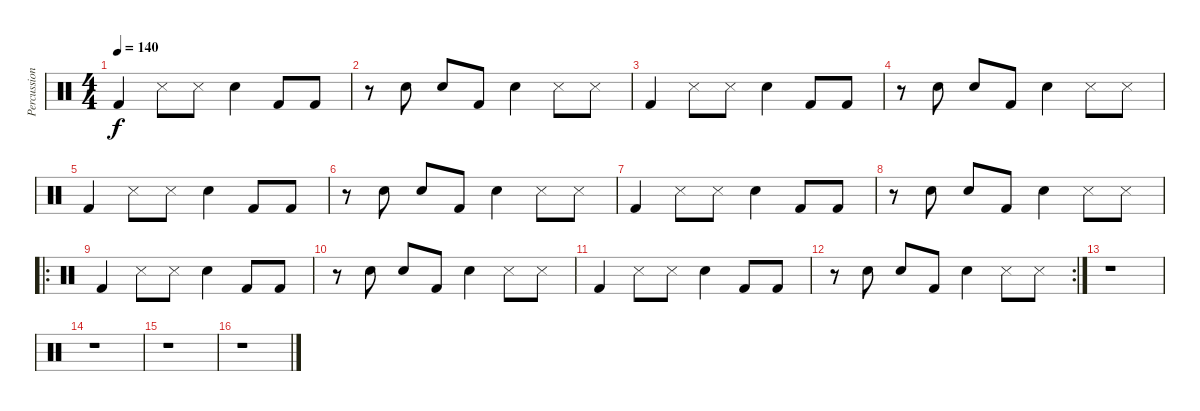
\track ("Percussions" "Percussion") {instrument percussion}
\staff {score}
\articulation defaults
\ts (4 4)
\tempo 140
\clef neutral
\ks c "Kick (hit) 2".4{dy f} "Snare (side stick) 3".8 "Snare (side stick) 3".8 "Electric Snare (hit)".4 "Kick (hit) 2".8 "Kick (hit) 2".8
|
r.8 "Electric Snare (hit)".8 "Snare (hit) 2".8 "Kick (hit) 2".8 "Electric Snare (hit)".4 "Snare (side stick) 3".8 "Snare (side stick) 3".8 |
"Kick (hit) 2".4 "Snare (side stick) 3".8 "Snare (side stick) 3".8 "Electric Snare (hit)".4 "Kick (hit) 2".8 "Kick (hit) 2".8 |
r.8 "Electric Snare (hit)".8 "Snare (hit) 2".8 "Kick (hit) 2".8 "Electric Snare (hit)".4 "Snare (side stick) 3".8 "Snare (side stick) 3".8 |
"Kick (hit) 2".4 "Snare (side stick) 3".8 "Snare (side stick) 3".8 "Electric Snare (hit)".4 "Kick (hit) 2".8 "Kick (hit) 2".8 |
r.8 "Electric Snare (hit)".8 "Snare (hit) 2".8 "Kick (hit) 2".8 "Electric Snare (hit)".4 "Snare (side stick) 3".8 "Snare (side stick) 3".8 |
"Kick (hit) 2".4 "Snare (side stick) 3".8 "Snare (side stick) 3".8 "Electric Snare (hit)".4 "Kick (hit) 2".8 "Kick (hit) 2".8 |
r.8 "Electric Snare (hit)".8 "Snare (hit) 2".8 "Kick (hit) 2".8 "Electric Snare (hit)".4 "Snare (side stick) 3".8 "Snare (side stick) 3".8 |
\ro "Kick (hit) 2".4 "Snare (side stick) 3".8 "Snare (side stick) 3".8 "Electric Snare (hit)".4 "Kick (hit) 2".8 "Kick (hit) 2".8
|
r.8 "Electric Snare (hit)".8 "Snare (hit) 2".8 "Kick (hit) 2".8 "Electric Snare (hit)".4 "Snare (side stick) 3".8 "Snare (side stick) 3".8 |
"Kick (hit) 2".4 "Snare (side stick) 3".8 "Snare (side stick) 3".8 "Electric Snare (hit)".4 "Kick (hit) 2".8 "Kick (hit) 2".8 |
\rc 2
r.8 "Electric Snare (hit)".8 "Snare (hit) 2".8 "Kick (hit) 2".8 "Electric Snare (hit)".4 "Snare (side stick) 3".8 "Snare (side stick) 3".8 |
r.1 |
r.1 |
r.1 |
r.1
